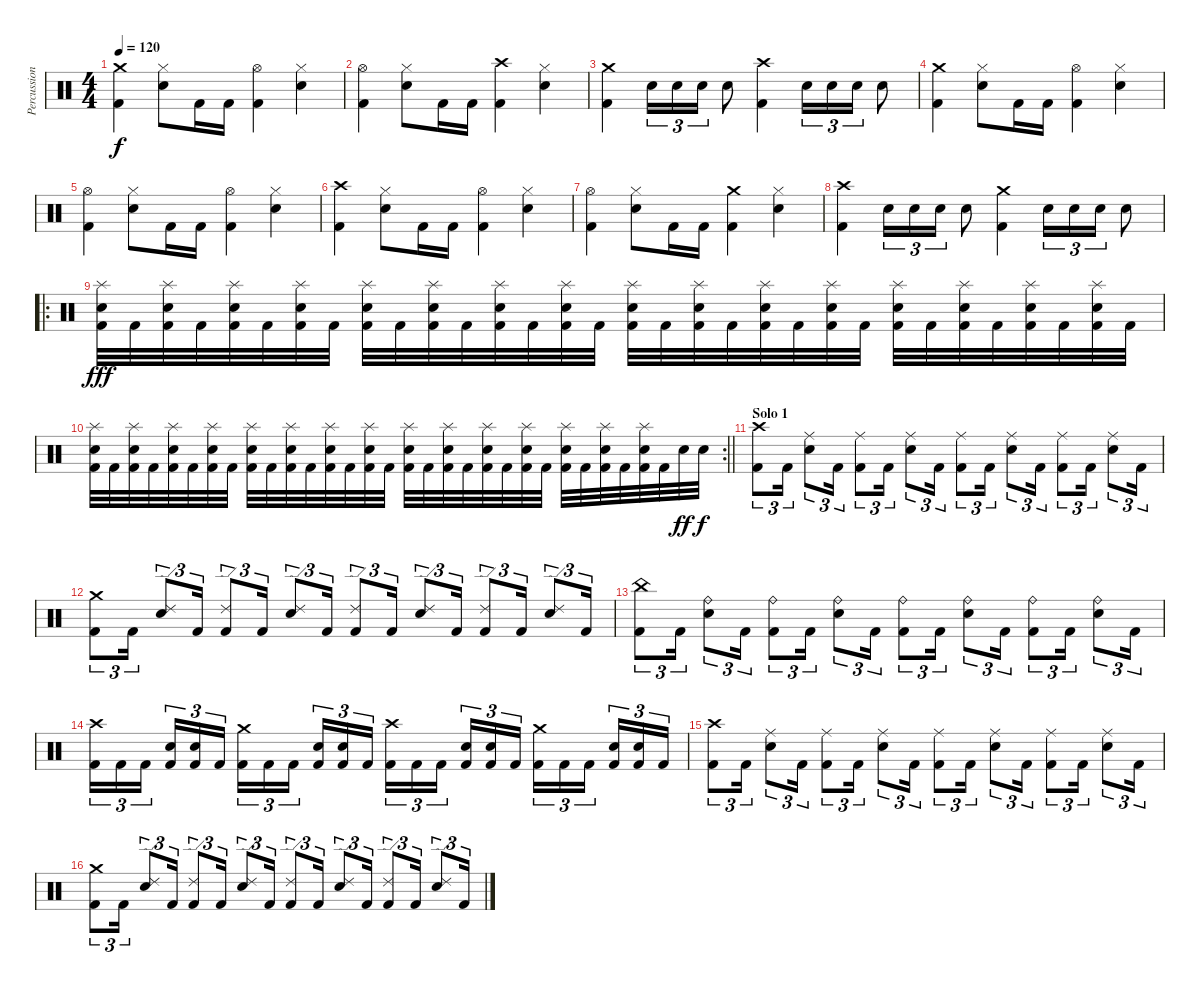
\track ("Percussion" "Percussion") {instrument percussion}
\staff {score}
\articulation defaults
\ts (4 4)
\tempo 120
\clef neutral
\ks c
("Crash medium (hit)" "Kick (hit) 2").4{dy f} ("Hi-Hat (closed)" "Electric Snare (hit)").8 "Kick (hit) 2".16 "Kick (hit) 2".16 ("Hi-Hat (open)" "Kick (hit) 2").4 ("Hi-Hat (closed)" "Electric Snare (hit)").4 |
("Hi-Hat (open)" "Kick (hit) 2").4 ("Hi-Hat (closed)" "Electric Snare (hit)").8 "Kick (hit) 2".16 "Kick (hit) 2".16 ("Crash high (hit)" "Kick (hit) 2").4 ("Hi-Hat (closed)" "Electric Snare (hit)").4 |
("Crash medium (hit)" "Kick (hit) 2").4 "Electric Snare (hit)".16{tu (3 2)} "Electric Snare (hit)".16{tu (3 2)} "Electric Snare (hit)".16{tu (3 2)} "Electric Snare (hit)".8 ("Crash high (hit)" "Kick (hit) 2").4 "Electric Snare (hit)".16{tu (3 2)} "Electric Snare (hit)".16{tu (3 2)} "Electric Snare (hit)".16{tu (3 2)} "Electric Snare (hit)".8 |
("Crash medium (hit)" "Kick (hit) 2").4 ("Hi-Hat (closed)" "Electric Snare (hit)").8 "Kick (hit) 2".16 "Kick (hit) 2".16 ("Hi-Hat (open)" "Kick (hit) 2").4 ("Hi-Hat (closed)" "Electric Snare (hit)").4 |
("Hi-Hat (open)" "Kick (hit) 2").4 ("Hi-Hat (closed)" "Electric Snare (hit)").8 "Kick (hit) 2".16 "Kick (hit) 2".16 ("Hi-Hat (open)" "Kick (hit) 2").4 ("Hi-Hat (closed)" "Electric Snare (hit)").4 |
("Crash high (hit)" "Kick (hit) 2").4 ("Hi-Hat (closed)" "Electric Snare (hit)").8 "Kick (hit) 2".16 "Kick (hit) 2".16 ("Hi-Hat (open)" "Kick (hit) 2").4 ("Hi-Hat (closed)" "Electric Snare (hit)").4 |
("Hi-Hat (open)" "Kick (hit) 2").4 ("Hi-Hat (closed)" "Electric Snare (hit)").8 "Kick (hit) 2".16 "Kick (hit) 2".16 ("Crash medium (hit)" "Kick (hit) 2").4 ("Hi-Hat (closed)" "Electric Snare (hit)").4 |
("Crash high (hit)" "Kick (hit) 2").4 "Electric Snare (hit)".16{tu (3 2)} "Electric Snare (hit)".16{tu (3 2)} "Electric Snare (hit)".16{tu (3 2)} "Electric Snare (hit)".8 ("Crash medium (hit)" "Kick (hit) 2").4 "Electric Snare (hit)".16{tu (3 2)} "Electric Snare (hit)".16{tu (3 2)} "Electric Snare (hit)".16{tu (3 2)} "Electric Snare (hit)".8 |
\ro
("Splash (hit)" "Electric Snare (hit)" "Kick (hit) 2").32{dy fff} "Kick (hit) 2".32 ("Splash (hit)" "Electric Snare (hit)" "Kick (hit) 2").32 "Kick (hit) 2".32 ("Splash (hit)" "Electric Snare (hit)" "Kick (hit) 2").32 "Kick (hit) 2".32 ("Splash (hit)" "Electric Snare (hit)" "Kick (hit) 2").32 "Kick (hit) 2".32 ("Splash (hit)" "Electric Snare (hit)" "Kick (hit) 2").32 "Kick (hit) 2".32 ("Splash (hit)" "Electric Snare (hit)" "Kick (hit) 2").32 "Kick (hit) 2".32 ("Splash (hit)" "Electric Snare (hit)" "Kick (hit) 2").32 "Kick (hit) 2".32 ("Splash (hit)" "Electric Snare (hit)" "Kick (hit) 2").32 "Kick (hit) 2".32 ("Splash (hit)" "Electric Snare (hit)" "Kick (hit) 2").32 "Kick (hit) 2".32 ("Splash (hit)" "Electric Snare (hit)" "Kick (hit) 2").32 "Kick (hit) 2".32 ("Splash (hit)" "Electric Snare (hit)" "Kick (hit) 2").32 "Kick (hit) 2".32 ("Splash (hit)" "Electric Snare (hit)" "Kick (hit) 2").32 "Kick (hit) 2".32 ("Splash (hit)" "Electric Snare (hit)" "Kick (hit) 2").32 "Kick (hit) 2".32 ("Splash (hit)" "Electric Snare (hit)" "Kick (hit) 2").32 "Kick (hit) 2".32 ("Splash (hit)" "Electric Snare (hit)" "Kick (hit) 2").32 "Kick (hit) 2".32 ("Splash (hit)" "Electric Snare (hit)" "Kick (hit) 2").32 "Kick (hit) 2".32 |
\rc 2
\barLineRight lightlight
("Splash (hit)" "Electric Snare (hit)" "Kick (hit) 2").32 "Kick (hit) 2".32 ("Splash (hit)" "Electric Snare (hit)" "Kick (hit) 2").32 "Kick (hit) 2".32 ("Splash (hit)" "Electric Snare (hit)" "Kick (hit) 2").32 "Kick (hit) 2".32 ("Splash (hit)" "Electric Snare (hit)" "Kick (hit) 2").32 "Kick (hit) 2".32 ("Splash (hit)" "Electric Snare (hit)" "Kick (hit) 2").32 "Kick (hit) 2".32 ("Splash (hit)" "Electric Snare (hit)" "Kick (hit) 2").32 "Kick (hit) 2".32 ("Splash (hit)" "Electric Snare (hit)" "Kick (hit) 2").32 "Kick (hit) 2".32 ("Splash (hit)" "Electric Snare (hit)" "Kick (hit) 2").32 "Kick (hit) 2".32 ("Splash (hit)" "Electric Snare (hit)" "Kick (hit) 2").32 "Kick (hit) 2".32 ("Splash (hit)" "Electric Snare (hit)" "Kick (hit) 2").32 "Kick (hit) 2".32 ("Splash (hit)" "Electric Snare (hit)" "Kick (hit) 2").32 "Kick (hit) 2".32 ("Splash (hit)" "Electric Snare (hit)" "Kick (hit) 2").32 "Kick (hit) 2".32 ("Splash (hit)" "Electric Snare (hit)" "Kick (hit) 2").32 "Kick (hit) 2".32 ("Splash (hit)" "Electric Snare (hit)" "Kick (hit) 2").32 "Kick (hit) 2".32 ("Splash (hit)" "Electric Snare (hit)" "Kick (hit) 2").32 "Kick (hit) 2".32 "Electric Snare (hit)".32{dy ff} "Electric Snare (hit)".32{dy f} |
\section ("" "Solo 1")
("Crash high (hit)" "Kick (hit) 2").8{tu (3 2)} "Kick (hit) 2".16{tu (3 2)} ("Ride (middle)" "Electric Snare (hit)").8{tu (3 2)} "Kick (hit) 2".16{tu (3 2)} ("Ride (middle)" "Kick (hit) 2").8{tu (3 2)} "Kick (hit) 2".16{tu (3 2)} ("Ride (middle)" "Electric Snare (hit)").8{tu (3 2)} "Kick (hit) 2".16{tu (3 2)} ("Ride (middle)" "Kick (hit) 2").8{tu (3 2)} "Kick (hit) 2".16{tu (3 2)} ("Ride (middle)" "Electric Snare (hit)").8{tu (3 2)} "Kick (hit) 2".16{tu (3 2)} ("Ride (middle)" "Kick (hit) 2").8{tu (3 2)} "Kick (hit) 2".16{tu (3 2)} ("Ride (middle)" "Electric Snare (hit)").8{tu (3 2)} "Kick (hit) 2".16{tu (3 2)} |
("Crash medium (hit)" "Kick (hit) 2").8{tu (3 2)} "Kick (hit) 2".16{tu (3 2)} ("Ride (edge) 2" "Electric Snare (hit)").8{tu (3 2)} "Kick (hit) 2".16{tu (3 2)} ("Ride (edge) 2" "Kick (hit) 2").8{tu (3 2)} "Kick (hit) 2".16{tu (3 2)} ("Ride (edge) 2" "Electric Snare (hit)").8{tu (3 2)} "Kick (hit) 2".16{tu (3 2)} ("Ride (edge) 2" "Kick (hit) 2").8{tu (3 2)} "Kick (hit) 2".16{tu (3 2)} ("Ride (edge) 2" "Electric Snare (hit)").8{tu (3 2)} "Kick (hit) 2".16{tu (3 2)} ("Ride (edge) 2" "Kick (hit) 2").8{tu (3 2)} "Kick (hit) 2".16{tu (3 2)} ("Ride (edge) 2" "Electric Snare (hit)").8{tu (3 2)} "Kick (hit) 2".16{tu (3 2)} |
("China (hit)" "Kick (hit) 2").8{tu (3 2)} "Kick (hit) 2".16{tu (3 2)} ("Ride (bell)" "Electric Snare (hit)").8{tu (3 2)} "Kick (hit) 2".16{tu (3 2)} ("Ride (bell)" "Kick (hit) 2").8{tu (3 2)} "Kick (hit) 2".16{tu (3 2)} ("Ride (bell)" "Electric Snare (hit)").8{tu (3 2)} "Kick (hit) 2".16{tu (3 2)} ("Ride (bell)" "Kick (hit) 2").8{tu (3 2)} "Kick (hit) 2".16{tu (3 2)} ("Ride (bell)" "Electric Snare (hit)").8{tu (3 2)} "Kick (hit) 2".16{tu (3 2)} ("Ride (bell)" "Kick (hit) 2").8{tu (3 2)} "Kick (hit) 2".16{tu (3 2)} ("Ride (bell)" "Electric Snare (hit)").8{tu (3 2)} "Kick (hit) 2".16{tu (3 2)} |
("Crash high (hit)" "Kick (hit) 2").16{tu (3 2)} "Kick (hit) 2".16{tu (3 2)} "Kick (hit) 2".16{tu (3 2) beam splitsecondary} ("Electric Snare (hit)" "Kick (hit) 2").16{tu (3 2)} ("Electric Snare (hit)" "Kick (hit) 2").16{tu (3 2)} "Kick (hit) 2".16{tu (3 2)} ("Crash medium (hit)" "Kick (hit) 2").16{tu (3 2)} "Kick (hit) 2".16{tu (3 2)} "Kick (hit) 2".16{tu (3 2) beam splitsecondary} ("Electric Snare (hit)" "Kick (hit) 2").16{tu (3 2)} ("Electric Snare (hit)" "Kick (hit) 2").16{tu (3 2)} "Kick (hit) 2".16{tu (3 2)} ("Crash high (hit)" "Kick (hit) 2").16{tu (3 2)} "Kick (hit) 2".16{tu (3 2)} "Kick (hit) 2".16{tu (3 2) beam splitsecondary} ("Electric Snare (hit)" "Kick (hit) 2").16{tu (3 2)} ("Electric Snare (hit)" "Kick (hit) 2").16{tu (3 2)} "Kick (hit) 2".16{tu (3 2)} ("Crash medium (hit)" "Kick (hit) 2").16{tu (3 2)} "Kick (hit) 2".16{tu (3 2)} "Kick (hit) 2".16{tu (3 2) beam splitsecondary} ("Electric Snare (hit)" "Kick (hit) 2").16{tu (3 2)} ("Electric Snare (hit)" "Kick (hit) 2").16{tu (3 2)} "Kick (hit) 2".16{tu (3 2)} |
("Crash high (hit)" "Kick (hit) 2").8{tu (3 2)} "Kick (hit) 2".16{tu (3 2)} ("Ride (middle)" "Electric Snare (hit)").8{tu (3 2)} "Kick (hit) 2".16{tu (3 2)} ("Ride (middle)" "Kick (hit) 2").8{tu (3 2)} "Kick (hit) 2".16{tu (3 2)} ("Ride (middle)" "Electric Snare (hit)").8{tu (3 2)} "Kick (hit) 2".16{tu (3 2)} ("Ride (middle)" "Kick (hit) 2").8{tu (3 2)} "Kick (hit) 2".16{tu (3 2)} ("Ride (middle)" "Electric Snare (hit)").8{tu (3 2)} "Kick (hit) 2".16{tu (3 2)} ("Ride (middle)" "Kick (hit) 2").8{tu (3 2)} "Kick (hit) 2".16{tu (3 2)} ("Ride (middle)" "Electric Snare (hit)").8{tu (3 2)} "Kick (hit) 2".16{tu (3 2)} |
("Crash medium (hit)" "Kick (hit) 2").8{tu (3 2)} "Kick (hit) 2".16{tu (3 2)} ("Ride (edge) 2" "Electric Snare (hit)").8{tu (3 2)} "Kick (hit) 2".16{tu (3 2)} ("Ride (edge) 2" "Kick (hit) 2").8{tu (3 2)} "Kick (hit) 2".16{tu (3 2)} ("Ride (edge) 2" "Electric Snare (hit)").8{tu (3 2)} "Kick (hit) 2".16{tu (3 2)} ("Ride (edge) 2" "Kick (hit) 2").8{tu (3 2)} "Kick (hit) 2".16{tu (3 2)} ("Ride (edge) 2" "Electric Snare (hit)").8{tu (3 2)} "Kick (hit) 2".16{tu (3 2)} ("Ride (edge) 2" "Kick (hit) 2").8{tu (3 2)} "Kick (hit) 2".16{tu (3 2)} ("Ride (edge) 2" "Electric Snare (hit)").8{tu (3 2)} "Kick (hit) 2".16{tu (3 2)}
